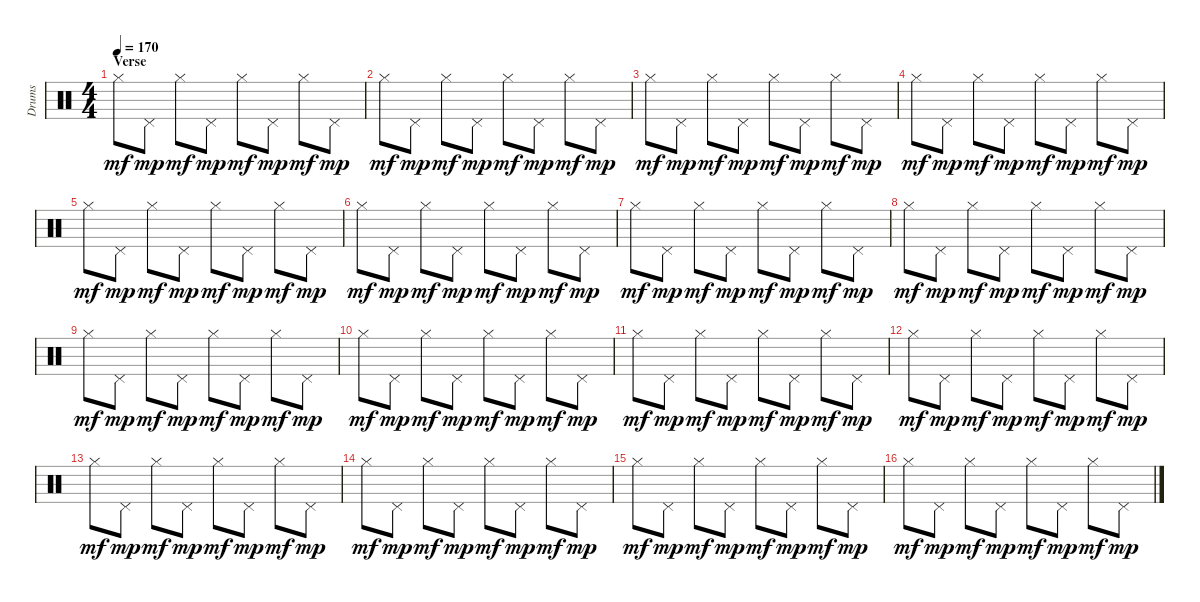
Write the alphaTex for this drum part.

\track ("Drums" "Drums") {instrument percussion}
\staff {score}
\articulation defaults
\ts (4 4)
\section ("" "Verse")
\tempo 170
\clef neutral
\ks c "Hi-Hat (closed)".8{dy mf} "Pedal Hi-Hat (hit)".8{dy mp} "Hi-Hat (closed)".8{dy mf} "Pedal Hi-Hat (hit)".8{dy mp} "Hi-Hat (closed)".8{dy mf} "Pedal Hi-Hat (hit)".8{dy mp} "Hi-Hat (closed)".8{dy mf} "Pedal Hi-Hat (hit)".8{dy mp}
|
"Hi-Hat (closed)".8{dy mf} "Pedal Hi-Hat (hit)".8{dy mp} "Hi-Hat (closed)".8{dy mf} "Pedal Hi-Hat (hit)".8{dy mp} "Hi-Hat (closed)".8{dy mf} "Pedal Hi-Hat (hit)".8{dy mp} "Hi-Hat (closed)".8{dy mf} "Pedal Hi-Hat (hit)".8{dy mp} |
"Hi-Hat (closed)".8{dy mf} "Pedal Hi-Hat (hit)".8{dy mp} "Hi-Hat (closed)".8{dy mf} "Pedal Hi-Hat (hit)".8{dy mp} "Hi-Hat (closed)".8{dy mf} "Pedal Hi-Hat (hit)".8{dy mp} "Hi-Hat (closed)".8{dy mf} "Pedal Hi-Hat (hit)".8{dy mp} |
"Hi-Hat (closed)".8{dy mf} "Pedal Hi-Hat (hit)".8{dy mp} "Hi-Hat (closed)".8{dy mf} "Pedal Hi-Hat (hit)".8{dy mp} "Hi-Hat (closed)".8{dy mf} "Pedal Hi-Hat (hit)".8{dy mp} "Hi-Hat (closed)".8{dy mf} "Pedal Hi-Hat (hit)".8{dy mp} |
"Hi-Hat (closed)".8{dy mf} "Pedal Hi-Hat (hit)".8{dy mp} "Hi-Hat (closed)".8{dy mf} "Pedal Hi-Hat (hit)".8{dy mp} "Hi-Hat (closed)".8{dy mf} "Pedal Hi-Hat (hit)".8{dy mp} "Hi-Hat (closed)".8{dy mf} "Pedal Hi-Hat (hit)".8{dy mp} |
"Hi-Hat (closed)".8{dy mf} "Pedal Hi-Hat (hit)".8{dy mp} "Hi-Hat (closed)".8{dy mf} "Pedal Hi-Hat (hit)".8{dy mp} "Hi-Hat (closed)".8{dy mf} "Pedal Hi-Hat (hit)".8{dy mp} "Hi-Hat (closed)".8{dy mf} "Pedal Hi-Hat (hit)".8{dy mp} |
"Hi-Hat (closed)".8{dy mf} "Pedal Hi-Hat (hit)".8{dy mp} "Hi-Hat (closed)".8{dy mf} "Pedal Hi-Hat (hit)".8{dy mp} "Hi-Hat (closed)".8{dy mf} "Pedal Hi-Hat (hit)".8{dy mp} "Hi-Hat (closed)".8{dy mf} "Pedal Hi-Hat (hit)".8{dy mp} |
"Hi-Hat (closed)".8{dy mf} "Pedal Hi-Hat (hit)".8{dy mp} "Hi-Hat (closed)".8{dy mf} "Pedal Hi-Hat (hit)".8{dy mp} "Hi-Hat (closed)".8{dy mf} "Pedal Hi-Hat (hit)".8{dy mp} "Hi-Hat (closed)".8{dy mf} "Pedal Hi-Hat (hit)".8{dy mp} |
"Hi-Hat (closed)".8{dy mf} "Pedal Hi-Hat (hit)".8{dy mp} "Hi-Hat (closed)".8{dy mf} "Pedal Hi-Hat (hit)".8{dy mp} "Hi-Hat (closed)".8{dy mf} "Pedal Hi-Hat (hit)".8{dy mp} "Hi-Hat (closed)".8{dy mf} "Pedal Hi-Hat (hit)".8{dy mp} |
"Hi-Hat (closed)".8{dy mf} "Pedal Hi-Hat (hit)".8{dy mp} "Hi-Hat (closed)".8{dy mf} "Pedal Hi-Hat (hit)".8{dy mp} "Hi-Hat (closed)".8{dy mf} "Pedal Hi-Hat (hit)".8{dy mp} "Hi-Hat (closed)".8{dy mf} "Pedal Hi-Hat (hit)".8{dy mp} |
"Hi-Hat (closed)".8{dy mf} "Pedal Hi-Hat (hit)".8{dy mp} "Hi-Hat (closed)".8{dy mf} "Pedal Hi-Hat (hit)".8{dy mp} "Hi-Hat (closed)".8{dy mf} "Pedal Hi-Hat (hit)".8{dy mp} "Hi-Hat (closed)".8{dy mf} "Pedal Hi-Hat (hit)".8{dy mp} |
"Hi-Hat (closed)".8{dy mf} "Pedal Hi-Hat (hit)".8{dy mp} "Hi-Hat (closed)".8{dy mf} "Pedal Hi-Hat (hit)".8{dy mp} "Hi-Hat (closed)".8{dy mf} "Pedal Hi-Hat (hit)".8{dy mp} "Hi-Hat (closed)".8{dy mf} "Pedal Hi-Hat (hit)".8{dy mp} |
"Hi-Hat (closed)".8{dy mf} "Pedal Hi-Hat (hit)".8{dy mp} "Hi-Hat (closed)".8{dy mf} "Pedal Hi-Hat (hit)".8{dy mp} "Hi-Hat (closed)".8{dy mf} "Pedal Hi-Hat (hit)".8{dy mp} "Hi-Hat (closed)".8{dy mf} "Pedal Hi-Hat (hit)".8{dy mp} |
"Hi-Hat (closed)".8{dy mf} "Pedal Hi-Hat (hit)".8{dy mp} "Hi-Hat (closed)".8{dy mf} "Pedal Hi-Hat (hit)".8{dy mp} "Hi-Hat (closed)".8{dy mf} "Pedal Hi-Hat (hit)".8{dy mp} "Hi-Hat (closed)".8{dy mf} "Pedal Hi-Hat (hit)".8{dy mp} |
"Hi-Hat (closed)".8{dy mf} "Pedal Hi-Hat (hit)".8{dy mp} "Hi-Hat (closed)".8{dy mf} "Pedal Hi-Hat (hit)".8{dy mp} "Hi-Hat (closed)".8{dy mf} "Pedal Hi-Hat (hit)".8{dy mp} "Hi-Hat (closed)".8{dy mf} "Pedal Hi-Hat (hit)".8{dy mp} |
"Hi-Hat (closed)".8{dy mf} "Pedal Hi-Hat (hit)".8{dy mp} "Hi-Hat (closed)".8{dy mf} "Pedal Hi-Hat (hit)".8{dy mp} "Hi-Hat (closed)".8{dy mf} "Pedal Hi-Hat (hit)".8{dy mp} "Hi-Hat (closed)".8{dy mf} "Pedal Hi-Hat (hit)".8{dy mp}
